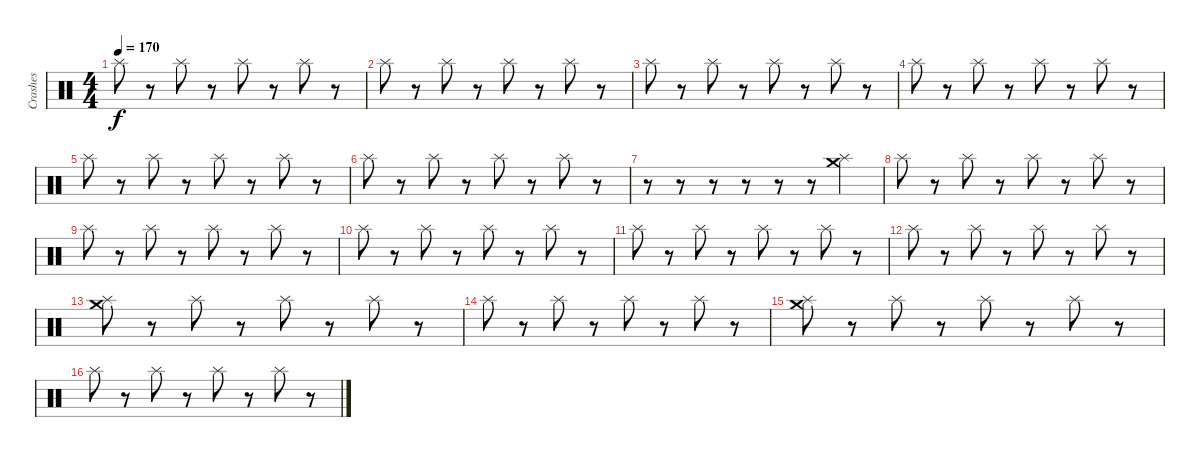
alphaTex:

\track ("Crashes" "Crashes") {instrument percussion}
\staff {score}
\articulation defaults
\ts (4 4)
\tempo 170
\clef neutral
\ks c "Splash (hit)".8{dy f}
r.8 "Splash (hit)".8 r.8 "Splash (hit)".8 r.8 "Splash (hit)".8 r.8 |
"Splash (hit)".8 r.8 "Splash (hit)".8 r.8 "Splash (hit)".8 r.8 "Splash (hit)".8 r.8 |
"Splash (hit)".8 r.8 "Splash (hit)".8 r.8 "Splash (hit)".8 r.8 "Splash (hit)".8 r.8 |
"Splash (hit)".8 r.8 "Splash (hit)".8 r.8 "Splash (hit)".8 r.8 "Splash (hit)".8 r.8 |
"Splash (hit)".8 r.8 "Splash (hit)".8 r.8 "Splash (hit)".8 r.8 "Splash (hit)".8 r.8 |
"Splash (hit)".8 r.8 "Splash (hit)".8 r.8 "Splash (hit)".8 r.8 "Splash (hit)".8 r.8 |
r.8 r.8 r.8 r.8 r.8 r.8 ("Crash medium (hit)" "Splash (hit)").4 |
"Splash (hit)".8 r.8 "Splash (hit)".8 r.8 "Splash (hit)".8 r.8 "Splash (hit)".8 r.8 |
"Splash (hit)".8 r.8 "Splash (hit)".8 r.8 "Splash (hit)".8 r.8 "Splash (hit)".8 r.8 |
"Splash (hit)".8 r.8 "Splash (hit)".8 r.8 "Splash (hit)".8 r.8 "Splash (hit)".8 r.8 |
"Splash (hit)".8 r.8 "Splash (hit)".8 r.8 "Splash (hit)".8 r.8 "Splash (hit)".8 r.8 |
"Splash (hit)".8 r.8 "Splash (hit)".8 r.8 "Splash (hit)".8 r.8 "Splash (hit)".8 r.8 |
("Crash medium (hit)" "Splash (hit)").8 r.8 "Splash (hit)".8 r.8 "Splash (hit)".8 r.8 "Splash (hit)".8 r.8 |
"Splash (hit)".8 r.8 "Splash (hit)".8 r.8 "Splash (hit)".8 r.8 "Splash (hit)".8 r.8 |
("Crash medium (hit)" "Splash (hit)").8 r.8 "Splash (hit)".8 r.8 "Splash (hit)".8 r.8 "Splash (hit)".8 r.8 |
"Splash (hit)".8 r.8 "Splash (hit)".8 r.8 "Splash (hit)".8 r.8 "Splash (hit)".8 r.8
